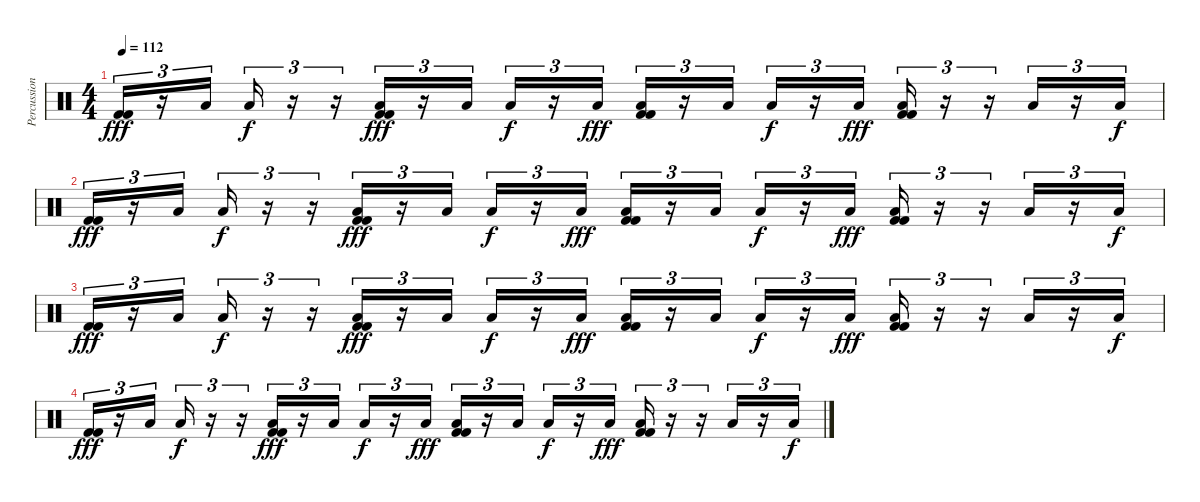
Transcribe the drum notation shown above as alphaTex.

\track ("Percussion" "Percussion") {instrument percussion}
\staff {score}
\articulation defaults
\ts (4 4)
\tempo 112
\clef neutral
\ks c
("Kick (hit) 2" "Kick (hit) 2").16{tu (3 2) dy fff} r.16{tu (3 2)} "Low Floor Tom (hit)".16{tu (3 2)} "Low Floor Tom (hit)".16{tu (3 2) dy f} r.16{tu (3 2)} r.16{tu (3 2)} ("Kick (hit) 2" "Kick (hit) 2" "Low Floor Tom (hit)").16{tu (3 2) dy fff} r.16{tu (3 2)} "Low Floor Tom (hit)".16{tu (3 2)} "Low Floor Tom (hit)".16{tu (3 2) dy f} r.16{tu (3 2)} "Low Floor Tom (hit)".16{tu (3 2) dy fff} ("Kick (hit) 2" "Kick (hit) 2" "Low Floor Tom (hit)").16{tu (3 2)} r.16{tu (3 2)} "Low Floor Tom (hit)".16{tu (3 2)} "Low Floor Tom (hit)".16{tu (3 2) dy f} r.16{tu (3 2)} "Low Floor Tom (hit)".16{tu (3 2) dy fff} ("Kick (hit) 2" "Kick (hit) 2" "Low Floor Tom (hit)").16{tu (3 2)} r.16{tu (3 2)} r.16{tu (3 2)} "Low Floor Tom (hit)".16{tu (3 2)} r.16{tu (3 2)} "Low Floor Tom (hit)".16{tu (3 2) dy f} |
("Kick (hit) 2" "Kick (hit) 2").16{tu (3 2) dy fff} r.16{tu (3 2)} "Low Floor Tom (hit)".16{tu (3 2)} "Low Floor Tom (hit)".16{tu (3 2) dy f} r.16{tu (3 2)} r.16{tu (3 2)} ("Kick (hit) 2" "Kick (hit) 2" "Low Floor Tom (hit)").16{tu (3 2) dy fff} r.16{tu (3 2)} "Low Floor Tom (hit)".16{tu (3 2)} "Low Floor Tom (hit)".16{tu (3 2) dy f} r.16{tu (3 2)} "Low Floor Tom (hit)".16{tu (3 2) dy fff} ("Kick (hit) 2" "Kick (hit) 2" "Low Floor Tom (hit)").16{tu (3 2)} r.16{tu (3 2)} "Low Floor Tom (hit)".16{tu (3 2)} "Low Floor Tom (hit)".16{tu (3 2) dy f} r.16{tu (3 2)} "Low Floor Tom (hit)".16{tu (3 2) dy fff} ("Kick (hit) 2" "Kick (hit) 2" "Low Floor Tom (hit)").16{tu (3 2)} r.16{tu (3 2)} r.16{tu (3 2)} "Low Floor Tom (hit)".16{tu (3 2)} r.16{tu (3 2)} "Low Floor Tom (hit)".16{tu (3 2) dy f} |
("Kick (hit) 2" "Kick (hit) 2").16{tu (3 2) dy fff} r.16{tu (3 2)} "Low Floor Tom (hit)".16{tu (3 2)} "Low Floor Tom (hit)".16{tu (3 2) dy f} r.16{tu (3 2)} r.16{tu (3 2)} ("Kick (hit) 2" "Kick (hit) 2" "Low Floor Tom (hit)").16{tu (3 2) dy fff} r.16{tu (3 2)} "Low Floor Tom (hit)".16{tu (3 2)} "Low Floor Tom (hit)".16{tu (3 2) dy f} r.16{tu (3 2)} "Low Floor Tom (hit)".16{tu (3 2) dy fff} ("Kick (hit) 2" "Kick (hit) 2" "Low Floor Tom (hit)").16{tu (3 2)} r.16{tu (3 2)} "Low Floor Tom (hit)".16{tu (3 2)} "Low Floor Tom (hit)".16{tu (3 2) dy f} r.16{tu (3 2)} "Low Floor Tom (hit)".16{tu (3 2) dy fff} ("Kick (hit) 2" "Kick (hit) 2" "Low Floor Tom (hit)").16{tu (3 2)} r.16{tu (3 2)} r.16{tu (3 2)} "Low Floor Tom (hit)".16{tu (3 2)} r.16{tu (3 2)} "Low Floor Tom (hit)".16{tu (3 2) dy f} |
("Kick (hit) 2" "Kick (hit) 2").16{tu (3 2) dy fff} r.16{tu (3 2)} "Low Floor Tom (hit)".16{tu (3 2)} "Low Floor Tom (hit)".16{tu (3 2) dy f} r.16{tu (3 2)} r.16{tu (3 2)} ("Kick (hit) 2" "Kick (hit) 2" "Low Floor Tom (hit)").16{tu (3 2) dy fff} r.16{tu (3 2)} "Low Floor Tom (hit)".16{tu (3 2)} "Low Floor Tom (hit)".16{tu (3 2) dy f} r.16{tu (3 2)} "Low Floor Tom (hit)".16{tu (3 2) dy fff} ("Kick (hit) 2" "Kick (hit) 2" "Low Floor Tom (hit)").16{tu (3 2)} r.16{tu (3 2)} "Low Floor Tom (hit)".16{tu (3 2)} "Low Floor Tom (hit)".16{tu (3 2) dy f} r.16{tu (3 2)} "Low Floor Tom (hit)".16{tu (3 2) dy fff} ("Kick (hit) 2" "Kick (hit) 2" "Low Floor Tom (hit)").16{tu (3 2)} r.16{tu (3 2)} r.16{tu (3 2)} "Low Floor Tom (hit)".16{tu (3 2)} r.16{tu (3 2)} "Low Floor Tom (hit)".16{tu (3 2) dy f}
